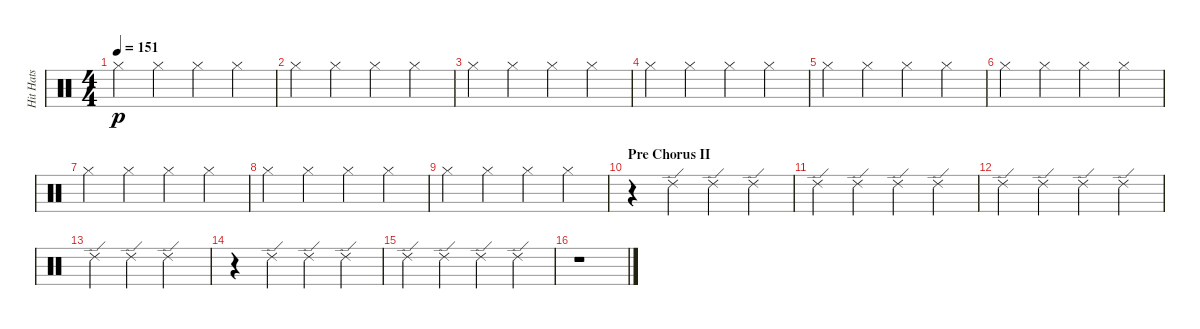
\track ("Hit Hats" "Hit Hats") {instrument percussion}
\staff {score}
\articulation defaults
\ts (4 4)
\tempo 151
\clef neutral
\ks c "Hi-Hat (closed)".4{dy p} "Hi-Hat (closed)".4 "Hi-Hat (closed)".4 "Hi-Hat (closed)".4
|
"Hi-Hat (closed)".4 "Hi-Hat (closed)".4 "Hi-Hat (closed)".4 "Hi-Hat (closed)".4 |
"Hi-Hat (closed)".4 "Hi-Hat (closed)".4 "Hi-Hat (closed)".4 "Hi-Hat (closed)".4 |
"Hi-Hat (closed)".4 "Hi-Hat (closed)".4 "Hi-Hat (closed)".4 "Hi-Hat (closed)".4 |
"Hi-Hat (closed)".4 "Hi-Hat (closed)".4 "Hi-Hat (closed)".4 "Hi-Hat (closed)".4 |
"Hi-Hat (closed)".4 "Hi-Hat (closed)".4 "Hi-Hat (closed)".4 "Hi-Hat (closed)".4 |
"Hi-Hat (closed)".4 "Hi-Hat (closed)".4 "Hi-Hat (closed)".4 "Hi-Hat (closed)".4 |
"Hi-Hat (closed)".4 "Hi-Hat (closed)".4 "Hi-Hat (closed)".4 "Hi-Hat (closed)".4 |
"Hi-Hat (closed)".4 "Hi-Hat (closed)".4 "Hi-Hat (closed)".4 "Hi-Hat (closed)".4 |
\section ("" "Pre Chorus II")
r.4 "Ride (edge) 2".4 "Ride (edge) 2".4 "Ride (edge) 2".4 |
"Ride (edge) 2".4 "Ride (edge) 2".4 "Ride (edge) 2".4 "Ride (edge) 2".4 |
"Ride (edge) 2".4 "Ride (edge) 2".4 "Ride (edge) 2".4 "Ride (edge) 2".4 |
"Ride (edge) 2".4 "Ride (edge) 2".4 "Ride (edge) 2".2 |
r.4 "Ride (edge) 2".4 "Ride (edge) 2".4 "Ride (edge) 2".4 |
"Ride (edge) 2".4 "Ride (edge) 2".4 "Ride (edge) 2".4 "Ride (edge) 2".4 |
r.1
